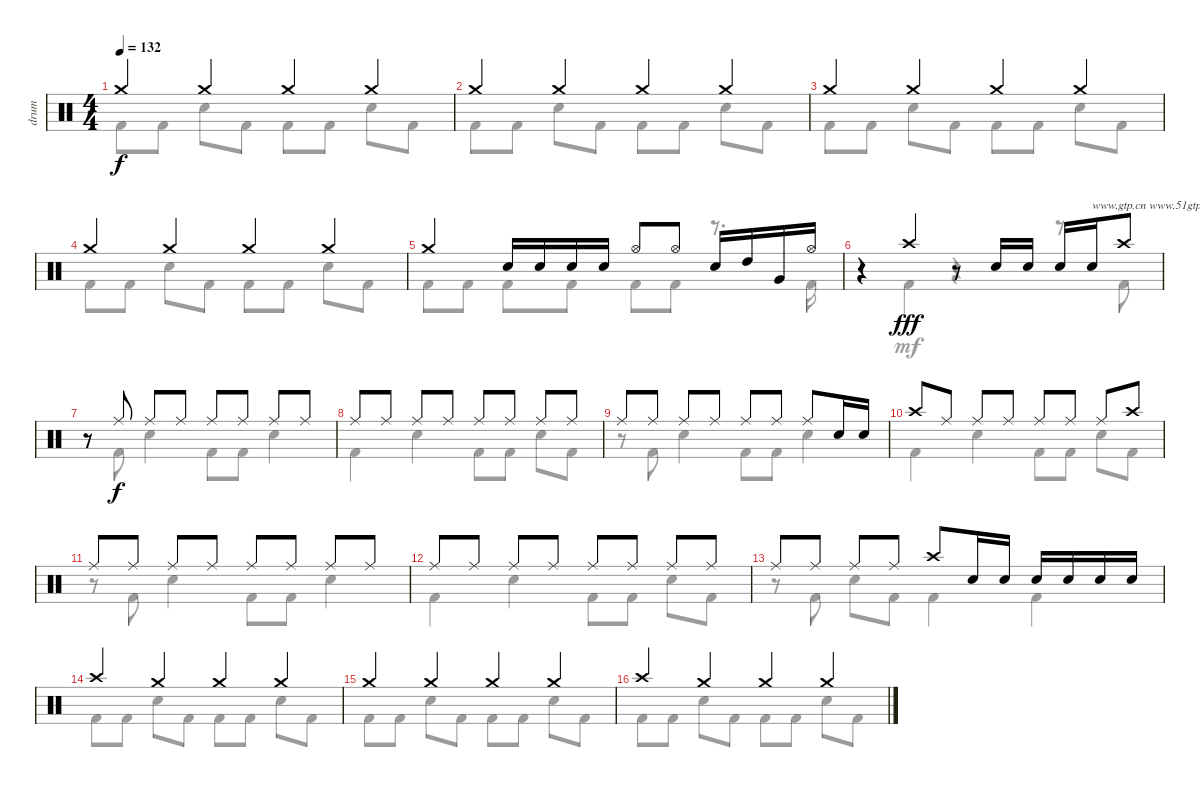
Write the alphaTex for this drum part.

\track ("drum" "drum") {instrument percussion}
\staff {score}
\articulation defaults
\voice
\ts (4 4)
\tempo 132
\clef neutral
\ks c "Crash medium (hit)".4{dy f} "Crash medium (hit)".4 "Crash medium (hit)".4 "Crash medium (hit)".4
|
"Crash medium (hit)".4 "Crash medium (hit)".4 "Crash medium (hit)".4 "Crash medium (hit)".4 |
"Crash medium (hit)".4 "Crash medium (hit)".4 "Crash medium (hit)".4 "Crash medium (hit)".4 |
"Crash medium (hit)".4 "Crash medium (hit)".4 "Crash medium (hit)".4 "Crash medium (hit)".4 |
"Crash medium (hit)".4 "Snare (hit) 2".16 "Snare (hit) 2".16 "Snare (hit) 2".16 "Snare (hit) 2".16 "Hi-Hat (open)".8 "Hi-Hat (open)".8 "Snare (hit) 2".16 "High Tom (hit)".16 "Very Low Tom (hit)".16 "Hi-Hat (open)".16 |
r.4 "Crash high (hit)".4{dy fff} r.8 "Snare (hit) 2".16 "Snare (hit) 2".16 "Snare (hit) 2".16 "Snare (hit) 2".16{txt "www.gtp.cn www.51gtp.com联合为您提供优秀的GTP!"} "Crash high (hit)".8 |
r.8 "Ride (middle)".8{dy f} "Ride (middle)".8 "Ride (middle)".8 "Ride (middle)".8 "Ride (middle)".8 "Ride (middle)".8 "Ride (middle)".8 |
"Ride (middle)".8 "Ride (middle)".8 "Ride (middle)".8 "Ride (middle)".8 "Ride (middle)".8 "Ride (middle)".8 "Ride (middle)".8 "Ride (middle)".8 |
"Ride (middle)".8 "Ride (middle)".8 "Ride (middle)".8 "Ride (middle)".8 "Ride (middle)".8 "Ride (middle)".8 "Ride (middle)".8 "Snare (hit) 2".16 "Snare (hit) 2".16 |
"Crash high (hit)".8 "Ride (middle)".8 "Ride (middle)".8 "Ride (middle)".8 "Ride (middle)".8 "Ride (middle)".8 "Ride (middle)".8 "Crash high (hit)".8 |
"Ride (middle)".8 "Ride (middle)".8 "Ride (middle)".8 "Ride (middle)".8 "Ride (middle)".8 "Ride (middle)".8 "Ride (middle)".8 "Ride (middle)".8 |
"Ride (middle)".8 "Ride (middle)".8 "Ride (middle)".8 "Ride (middle)".8 "Ride (middle)".8 "Ride (middle)".8 "Ride (middle)".8 "Ride (middle)".8 |
"Ride (middle)".8 "Ride (middle)".8 "Ride (middle)".8 "Ride (middle)".8 "Crash high (hit)".8 "Snare (hit) 2".16 "Snare (hit) 2".16 "Snare (hit) 2".16 "Snare (hit) 2".16 "Snare (hit) 2".16 "Snare (hit) 2".16 |
"Crash high (hit)".4 "Crash medium (hit)".4 "Crash medium (hit)".4 "Crash medium (hit)".4 |
"Crash medium (hit)".4 "Crash medium (hit)".4 "Crash medium (hit)".4 "Crash medium (hit)".4 |
"Crash high (hit)".4 "Crash medium (hit)".4 "Crash medium (hit)".4 "Crash medium (hit)".4
\voice
\clef neutral
\ottava regular
\simile none
\ks c "Kick (hit) 2".8{dy f} "Kick (hit) 2".8 "Snare (hit) 2".8 "Kick (hit) 2".8 "Kick (hit) 2".8 "Kick (hit) 2".8 "Snare (hit) 2".8 "Kick (hit) 2".8
|
"Kick (hit) 2".8 "Kick (hit) 2".8 "Snare (hit) 2".8 "Kick (hit) 2".8 "Kick (hit) 2".8 "Kick (hit) 2".8 "Snare (hit) 2".8 "Kick (hit) 2".8 |
"Kick (hit) 2".8 "Kick (hit) 2".8 "Snare (hit) 2".8 "Kick (hit) 2".8 "Kick (hit) 2".8 "Kick (hit) 2".8 "Snare (hit) 2".8 "Kick (hit) 2".8 |
"Kick (hit) 2".8 "Kick (hit) 2".8 "Snare (hit) 2".8 "Kick (hit) 2".8 "Kick (hit) 2".8 "Kick (hit) 2".8 "Snare (hit) 2".8 "Kick (hit) 2".8 |
"Kick (hit) 2".8 "Kick (hit) 2".8 "Kick (hit) 2".8 "Kick (hit) 2".8 "Kick (hit) 2".8 "Kick (hit) 2".8 r.8{d} "Kick (hit) 2".16 |
r.4 "Kick (hit) 2".4{dy mf} r.4 r.8 "Kick (hit) 2".8 |
r.8 "Kick (hit) 2".8{dy f} "Snare (hit) 2".4 "Kick (hit) 2".8 "Kick (hit) 2".8 "Snare (hit) 2".4 |
"Kick (hit) 2".4 "Snare (hit) 2".4 "Kick (hit) 2".8 "Kick (hit) 2".8 "Snare (hit) 2".8 "Kick (hit) 2".8 |
r.8 "Kick (hit) 2".8 "Snare (hit) 2".4 "Kick (hit) 2".8 "Kick (hit) 2".8 "Snare (hit) 2".4 |
"Kick (hit) 2".4 "Snare (hit) 2".4 "Kick (hit) 2".8 "Kick (hit) 2".8 "Snare (hit) 2".8 "Kick (hit) 2".8 |
r.8 "Kick (hit) 2".8 "Snare (hit) 2".4 "Kick (hit) 2".8 "Kick (hit) 2".8 "Snare (hit) 2".4 |
"Kick (hit) 2".4 "Snare (hit) 2".4 "Kick (hit) 2".8 "Kick (hit) 2".8 "Snare (hit) 2".8 "Kick (hit) 2".8 |
r.8 "Kick (hit) 2".8 "Snare (hit) 2".8 "Kick (hit) 2".8 "Kick (hit) 2".4 "Kick (hit) 2".4 |
"Kick (hit) 2".8 "Kick (hit) 2".8 "Snare (hit) 2".8 "Kick (hit) 2".8 "Kick (hit) 2".8 "Kick (hit) 2".8 "Snare (hit) 2".8 "Kick (hit) 2".8 |
"Kick (hit) 2".8 "Kick (hit) 2".8 "Snare (hit) 2".8 "Kick (hit) 2".8 "Kick (hit) 2".8 "Kick (hit) 2".8 "Snare (hit) 2".8 "Kick (hit) 2".8 |
"Kick (hit) 2".8 "Kick (hit) 2".8 "Snare (hit) 2".8 "Kick (hit) 2".8 "Kick (hit) 2".8 "Kick (hit) 2".8 "Snare (hit) 2".8 "Kick (hit) 2".8
